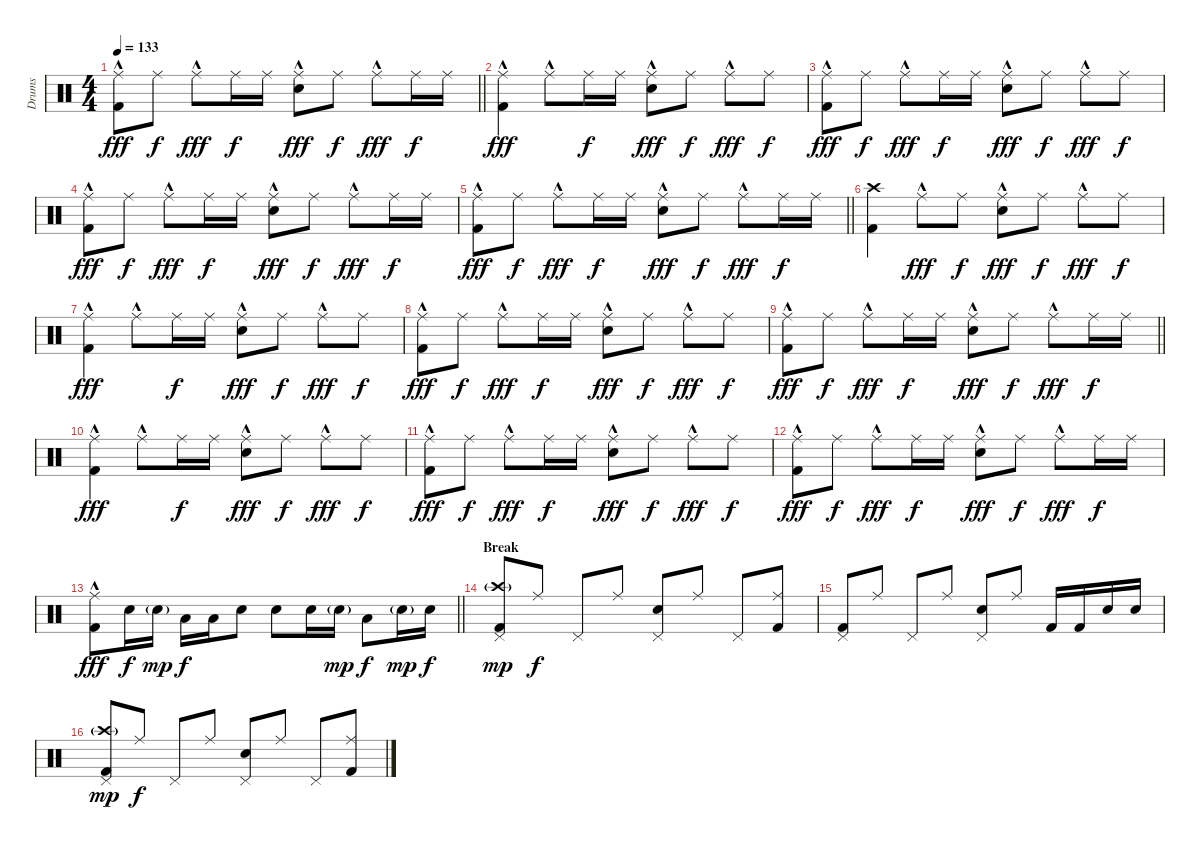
\track ("Drums" "Drums") {instrument percussion}
\staff {score}
\articulation defaults
\ts (4 4)
\tempo 133
\clef neutral
\barLineRight lightlight
\ks c
("Ride (middle)"{hac} "Kick (hit) 2").8{dy fff} "Ride (middle)".8{dy f} "Ride (middle)"{hac}.8{dy fff} "Ride (middle)".16{dy f} "Ride (middle)".16 ("Ride (middle)"{hac} "Snare (hit) 2").8{dy fff} "Ride (middle)".8{dy f} "Ride (middle)"{hac}.8{dy fff} "Ride (middle)".16{dy f} "Ride (middle)".16 |
\section ("" "")
("Ride (middle)"{hac} "Kick (hit) 2").4{dy fff} "Ride (middle)"{hac}.8 "Ride (middle)".16{dy f} "Ride (middle)".16 ("Ride (middle)"{hac} "Snare (hit) 2").8{dy fff} "Ride (middle)".8{dy f} "Ride (middle)"{hac}.8{dy fff} "Ride (middle)".8{dy f} |
("Ride (middle)"{hac} "Kick (hit) 2").8{dy fff} "Ride (middle)".8{dy f} "Ride (middle)"{hac}.8{dy fff} "Ride (middle)".16{dy f} "Ride (middle)".16 ("Ride (middle)"{hac} "Snare (hit) 2").8{dy fff} "Ride (middle)".8{dy f} "Ride (middle)"{hac}.8{dy fff} "Ride (middle)".8{dy f} |
("Ride (middle)"{hac} "Kick (hit) 2").8{dy fff} "Ride (middle)".8{dy f} "Ride (middle)"{hac}.8{dy fff} "Ride (middle)".16{dy f} "Ride (middle)".16 ("Ride (middle)"{hac} "Snare (hit) 2").8{dy fff} "Ride (middle)".8{dy f} "Ride (middle)"{hac}.8{dy fff} "Ride (middle)".16{dy f} "Ride (middle)".16 |
\barLineRight lightlight
("Ride (middle)"{hac} "Kick (hit) 2").8{dy fff} "Ride (middle)".8{dy f} "Ride (middle)"{hac}.8{dy fff} "Ride (middle)".16{dy f} "Ride (middle)".16 ("Ride (middle)"{hac} "Snare (hit) 2").8{dy fff} "Ride (middle)".8{dy f} "Ride (middle)"{hac}.8{dy fff} "Ride (middle)".16{dy f} "Ride (middle)".16 |
\section ("" "")
("Crash high (hit)" "Kick (hit) 2").4 "Ride (middle)"{hac}.8{dy fff} "Ride (middle)".8{dy f} ("Ride (middle)"{hac} "Snare (hit) 2").8{dy fff} "Ride (middle)".8{dy f} "Ride (middle)"{hac}.8{dy fff} "Ride (middle)".8{dy f} |
("Ride (middle)"{hac} "Kick (hit) 2").4{dy fff} "Ride (middle)"{hac}.8 "Ride (middle)".16{dy f} "Ride (middle)".16 ("Ride (middle)"{hac} "Snare (hit) 2").8{dy fff} "Ride (middle)".8{dy f} "Ride (middle)"{hac}.8{dy fff} "Ride (middle)".8{dy f} |
("Ride (middle)"{hac} "Kick (hit) 2").8{dy fff} "Ride (middle)".8{dy f} "Ride (middle)"{hac}.8{dy fff} "Ride (middle)".16{dy f} "Ride (middle)".16 ("Ride (middle)"{hac} "Snare (hit) 2").8{dy fff} "Ride (middle)".8{dy f} "Ride (middle)"{hac}.8{dy fff} "Ride (middle)".8{dy f} |
\barLineRight lightlight
("Ride (middle)"{hac} "Kick (hit) 2").8{dy fff} "Ride (middle)".8{dy f} "Ride (middle)"{hac}.8{dy fff} "Ride (middle)".16{dy f} "Ride (middle)".16 ("Ride (middle)"{hac} "Snare (hit) 2").8{dy fff} "Ride (middle)".8{dy f} "Ride (middle)"{hac}.8{dy fff} "Ride (middle)".16{dy f} "Ride (middle)".16 |
\section ("" "")
("Ride (middle)"{hac} "Kick (hit) 2").4{dy fff} "Ride (middle)"{hac}.8 "Ride (middle)".16{dy f} "Ride (middle)".16 ("Ride (middle)"{hac} "Snare (hit) 2").8{dy fff} "Ride (middle)".8{dy f} "Ride (middle)"{hac}.8{dy fff} "Ride (middle)".8{dy f} |
("Ride (middle)"{hac} "Kick (hit) 2").8{dy fff} "Ride (middle)".8{dy f} "Ride (middle)"{hac}.8{dy fff} "Ride (middle)".16{dy f} "Ride (middle)".16 ("Ride (middle)"{hac} "Snare (hit) 2").8{dy fff} "Ride (middle)".8{dy f} "Ride (middle)"{hac}.8{dy fff} "Ride (middle)".8{dy f} |
("Ride (middle)"{hac} "Kick (hit) 2").8{dy fff} "Ride (middle)".8{dy f} "Ride (middle)"{hac}.8{dy fff} "Ride (middle)".16{dy f} "Ride (middle)".16 ("Ride (middle)"{hac} "Snare (hit) 2").8{dy fff} "Ride (middle)".8{dy f} "Ride (middle)"{hac}.8{dy fff} "Ride (middle)".16{dy f} "Ride (middle)".16 |
\barLineRight lightlight
("Ride (middle)"{hac} "Kick (hit) 2").8{dy fff} "Snare (hit) 2".16{dy f} "Snare (hit) 2"{g}.16{dy mp} "Low Tom (hit)".16{dy f} "Low Tom (hit)".16 "Snare (hit) 2".8 "Snare (hit) 2".8 "Snare (hit) 2".16 "Snare (hit) 2"{g}.16{dy mp} "Low Tom (hit)".8{dy f} "Snare (hit) 2"{g}.16{dy mp} "Snare (hit) 2".16{dy f} |
\section ("" "Break")
("Crash high (hit)"{g} "Pedal Hi-Hat (hit)" "Kick (hit) 2").8{dy mp} "Ride (middle)".8{dy f} "Pedal Hi-Hat (hit)".8 "Ride (middle)".8 ("Pedal Hi-Hat (hit)" "Snare (hit) 2").8 "Ride (middle)".8 "Pedal Hi-Hat (hit)".8 ("Ride (middle)" "Kick (hit) 2").8 |
("Pedal Hi-Hat (hit)" "Kick (hit) 2").8 "Ride (middle)".8 "Pedal Hi-Hat (hit)".8 "Ride (middle)".8 ("Pedal Hi-Hat (hit)" "Snare (hit) 2").8 "Ride (middle)".8 "Kick (hit) 2".16 "Kick (hit) 2".16 "Snare (hit) 2".16 "Snare (hit) 2".16 |
("Crash high (hit)"{g} "Pedal Hi-Hat (hit)" "Kick (hit) 2").8{dy mp} "Ride (middle)".8{dy f} "Pedal Hi-Hat (hit)".8 "Ride (middle)".8 ("Pedal Hi-Hat (hit)" "Snare (hit) 2").8 "Ride (middle)".8 "Pedal Hi-Hat (hit)".8 ("Ride (middle)" "Kick (hit) 2").8
